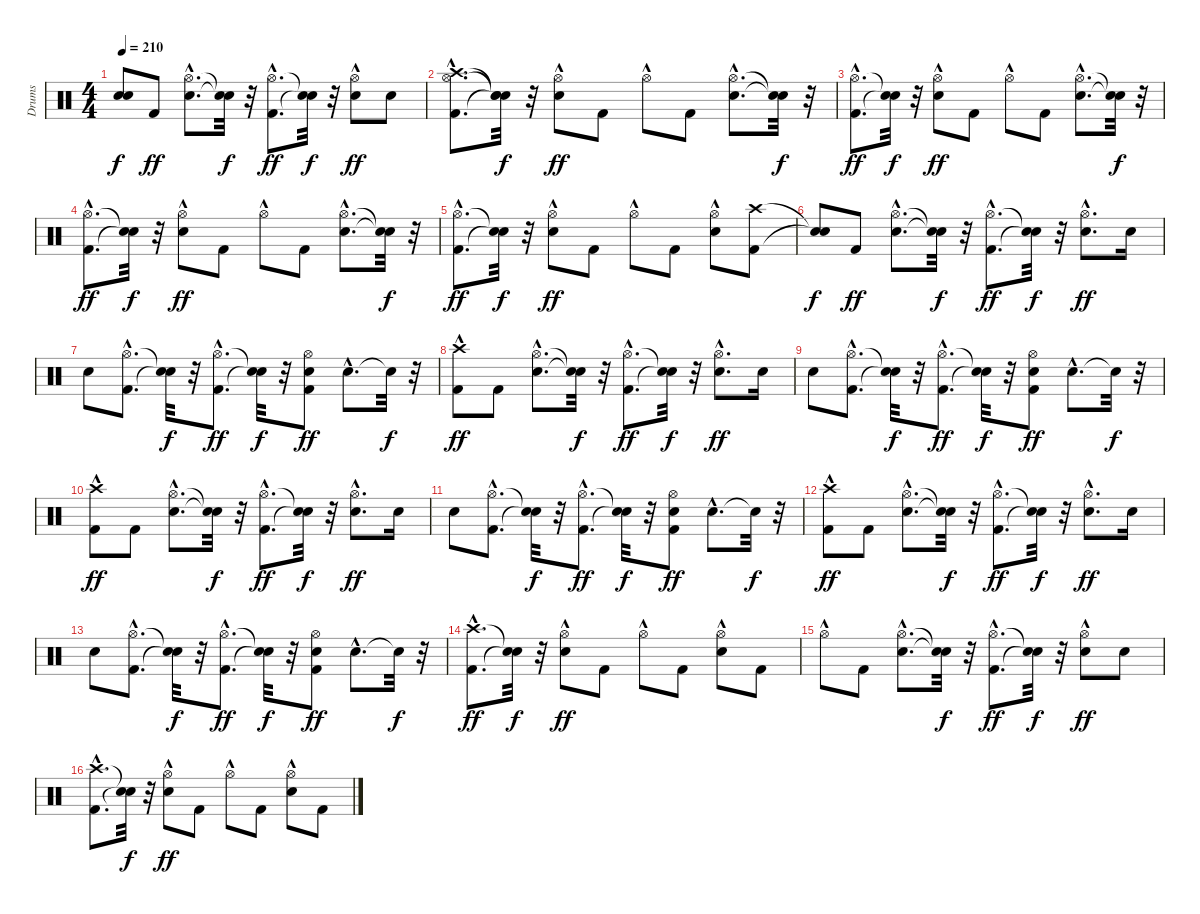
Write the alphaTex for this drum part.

\track ("Drums" "Drums") {instrument percussion}
\staff {score}
\articulation defaults
\ts (4 4)
\tempo 210
\clef neutral
\ks c
("Snare (hit)"{t} "Snare (hit)"{t}).8{dy f} "Kick (hit) 2".8{dy ff} ("Snare (hit) 2"{hac} "Hi-Hat (open)"{hac}).8{d} ("Snare (hit)"{t} "Snare (hit)"{t}).32{dy f} r.32 ("Kick (hit) 2"{hac} "Hi-Hat (open)"{hac}).8{d dy ff} ("Snare (hit)"{t} "Snare (hit)"{t}).32{dy f} r.32 ("Snare (hit) 2" "Hi-Hat (open)"{hac}).8{dy ff} "Snare (hit) 2".8 |
("Kick (hit) 2"{hac} "Hi-Hat (open)"{hac} "Crash high (hit)"{hac}).8{d} ("Snare (hit)"{t} "Snare (hit)"{t} "Snare (hit)"{t}).32{dy f} r.32 ("Snare (hit) 2" "Hi-Hat (open)"{hac}).8{dy ff} "Kick (hit) 2".8 "Hi-Hat (open)"{hac}.8 "Kick (hit) 2".8 ("Snare (hit) 2"{hac} "Hi-Hat (open)"{hac}).8{d} ("Snare (hit)"{t} "Snare (hit)"{t}).32{dy f} r.32 |
("Kick (hit) 2"{hac} "Hi-Hat (open)"{hac}).8{d dy ff} ("Snare (hit)"{t} "Snare (hit)"{t}).32{dy f} r.32 ("Snare (hit) 2" "Hi-Hat (open)"{hac}).8{dy ff} "Kick (hit) 2".8 "Hi-Hat (open)"{hac}.8 "Kick (hit) 2".8 ("Snare (hit) 2"{hac} "Hi-Hat (open)"{hac}).8{d} ("Snare (hit)"{t} "Snare (hit)"{t}).32{dy f} r.32 |
("Kick (hit) 2"{hac} "Hi-Hat (open)"{hac}).8{d dy ff} ("Snare (hit)"{t} "Snare (hit)"{t}).32{dy f} r.32 ("Snare (hit) 2" "Hi-Hat (open)"{hac}).8{dy ff} "Kick (hit) 2".8 "Hi-Hat (open)"{hac}.8 "Kick (hit) 2".8 ("Snare (hit) 2"{hac} "Hi-Hat (open)"{hac}).8{d} ("Snare (hit)"{t} "Snare (hit)"{t}).32{dy f} r.32 |
("Kick (hit) 2"{hac} "Hi-Hat (open)"{hac}).8{d dy ff} ("Snare (hit)"{t} "Snare (hit)"{t}).32{dy f} r.32 ("Snare (hit) 2" "Hi-Hat (open)"{hac}).8{dy ff} "Kick (hit) 2".8 "Hi-Hat (open)"{hac}.8 "Kick (hit) 2".8 ("Snare (hit) 2" "Hi-Hat (open)"{hac}).8 ("Kick (hit) 2" "Crash high (hit)").8 |
("Snare (hit)"{t} "Snare (hit)"{t}).8{dy f} "Kick (hit) 2".8{dy ff} ("Snare (hit) 2"{hac} "Hi-Hat (open)"{hac}).8{d} ("Snare (hit)"{t} "Snare (hit)"{t}).32{dy f} r.32 ("Kick (hit) 2"{hac} "Hi-Hat (open)"{hac}).8{d dy ff} ("Snare (hit)"{t} "Snare (hit)"{t}).32{dy f} r.32 ("Snare (hit) 2"{hac} "Hi-Hat (open)"{hac}).8{d dy ff} "Snare (hit) 2".16 |
"Snare (hit) 2".8 ("Kick (hit) 2"{hac} "Hi-Hat (open)"{hac}).8{d} ("Snare (hit)"{t} "Snare (hit)"{t}).32{dy f} r.32 ("Kick (hit) 2"{hac} "Hi-Hat (open)"{hac}).8{d dy ff} ("Snare (hit)"{t} "Snare (hit)"{t}).32{dy f} r.32 ("Kick (hit) 2" "Snare (hit) 2" "Hi-Hat (open)").8{dy ff} "Snare (hit) 2"{hac}.8{d} "Snare (hit)"{t}.32{dy f} r.32 |
("Kick (hit) 2" "Crash high (hit)"{hac}).8{dy ff} "Kick (hit) 2".8 ("Snare (hit) 2"{hac} "Hi-Hat (open)"{hac}).8{d} ("Snare (hit)"{t} "Snare (hit)"{t}).32{dy f} r.32 ("Kick (hit) 2"{hac} "Hi-Hat (open)"{hac}).8{d dy ff} ("Snare (hit)"{t} "Snare (hit)"{t}).32{dy f} r.32 ("Snare (hit) 2"{hac} "Hi-Hat (open)"{hac}).8{d dy ff} "Snare (hit) 2".16 |
"Snare (hit) 2".8 ("Kick (hit) 2"{hac} "Hi-Hat (open)"{hac}).8{d} ("Snare (hit)"{t} "Snare (hit)"{t}).32{dy f} r.32 ("Kick (hit) 2"{hac} "Hi-Hat (open)"{hac}).8{d dy ff} ("Snare (hit)"{t} "Snare (hit)"{t}).32{dy f} r.32 ("Kick (hit) 2" "Snare (hit) 2" "Hi-Hat (open)").8{dy ff} "Snare (hit) 2"{hac}.8{d} "Snare (hit)"{t}.32{dy f} r.32 |
("Kick (hit) 2" "Crash high (hit)"{hac}).8{dy ff} "Kick (hit) 2".8 ("Snare (hit) 2"{hac} "Hi-Hat (open)"{hac}).8{d} ("Snare (hit)"{t} "Snare (hit)"{t}).32{dy f} r.32 ("Kick (hit) 2"{hac} "Hi-Hat (open)"{hac}).8{d dy ff} ("Snare (hit)"{t} "Snare (hit)"{t}).32{dy f} r.32 ("Snare (hit) 2"{hac} "Hi-Hat (open)"{hac}).8{d dy ff} "Snare (hit) 2".16 |
"Snare (hit) 2".8 ("Kick (hit) 2"{hac} "Hi-Hat (open)"{hac}).8{d} ("Snare (hit)"{t} "Snare (hit)"{t}).32{dy f} r.32 ("Kick (hit) 2"{hac} "Hi-Hat (open)"{hac}).8{d dy ff} ("Snare (hit)"{t} "Snare (hit)"{t}).32{dy f} r.32 ("Kick (hit) 2" "Snare (hit) 2" "Hi-Hat (open)").8{dy ff} "Snare (hit) 2"{hac}.8{d} "Snare (hit)"{t}.32{dy f} r.32 |
("Kick (hit) 2" "Crash high (hit)"{hac}).8{dy ff} "Kick (hit) 2".8 ("Snare (hit) 2"{hac} "Hi-Hat (open)"{hac}).8{d} ("Snare (hit)"{t} "Snare (hit)"{t}).32{dy f} r.32 ("Kick (hit) 2"{hac} "Hi-Hat (open)"{hac}).8{d dy ff} ("Snare (hit)"{t} "Snare (hit)"{t}).32{dy f} r.32 ("Snare (hit) 2"{hac} "Hi-Hat (open)"{hac}).8{d dy ff} "Snare (hit) 2".16 |
"Snare (hit) 2".8 ("Kick (hit) 2"{hac} "Hi-Hat (open)"{hac}).8{d} ("Snare (hit)"{t} "Snare (hit)"{t}).32{dy f} r.32 ("Kick (hit) 2"{hac} "Hi-Hat (open)"{hac}).8{d dy ff} ("Snare (hit)"{t} "Snare (hit)"{t}).32{dy f} r.32 ("Kick (hit) 2" "Snare (hit) 2" "Hi-Hat (open)").8{dy ff} "Snare (hit) 2"{hac}.8{d} "Snare (hit)"{t}.32{dy f} r.32 |
("Kick (hit) 2"{hac} "Crash high (hit)"{hac}).8{d dy ff} ("Snare (hit)"{t} "Snare (hit)"{t}).32{dy f} r.32 ("Snare (hit) 2" "Hi-Hat (open)"{hac}).8{dy ff} "Kick (hit) 2".8 "Hi-Hat (open)"{hac}.8 "Kick (hit) 2".8 ("Snare (hit) 2" "Hi-Hat (open)"{hac}).8 "Kick (hit) 2".8 |
"Hi-Hat (open)"{hac}.8 "Kick (hit) 2".8 ("Snare (hit) 2"{hac} "Hi-Hat (open)"{hac}).8{d} ("Snare (hit)"{t} "Snare (hit)"{t}).32{dy f} r.32 ("Kick (hit) 2"{hac} "Hi-Hat (open)"{hac}).8{d dy ff} ("Snare (hit)"{t} "Snare (hit)"{t}).32{dy f} r.32 ("Snare (hit) 2" "Hi-Hat (open)"{hac}).8{dy ff} "Snare (hit) 2".8 |
("Kick (hit) 2"{hac} "Crash high (hit)"{hac}).8{d} ("Snare (hit)"{t} "Snare (hit)"{t}).32{dy f} r.32 ("Snare (hit) 2" "Hi-Hat (open)"{hac}).8{dy ff} "Kick (hit) 2".8 "Hi-Hat (open)"{hac}.8 "Kick (hit) 2".8 ("Snare (hit) 2" "Hi-Hat (open)"{hac}).8 "Kick (hit) 2".8
